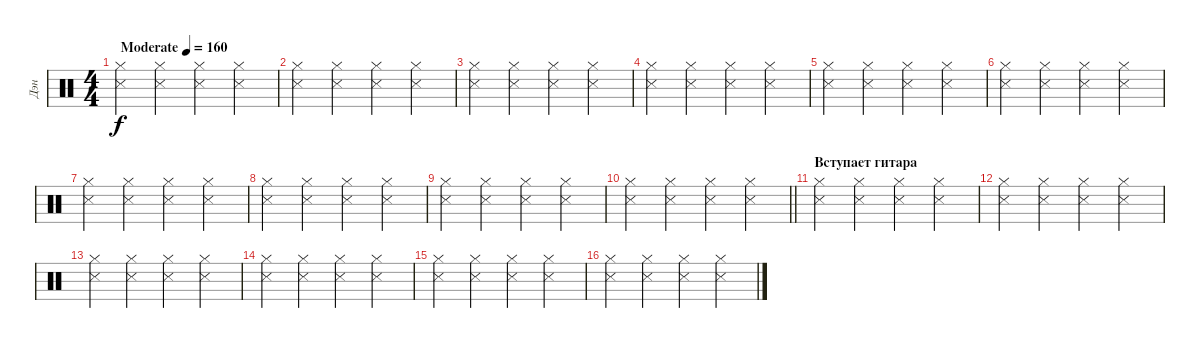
\track ("Дэн" "Дэн") {instrument percussion}
\staff {score}
\articulation defaults
\ts (4 4)
\tempo (160 "Moderate")
\clef neutral
\ks c
("Hi-Hat (closed)" "Snare (side stick) 3").4{dy f} ("Hi-Hat (closed)" "Snare (side stick) 3").4 ("Hi-Hat (closed)" "Snare (side stick) 3").4 ("Hi-Hat (closed)" "Snare (side stick) 3").4 |
("Hi-Hat (closed)" "Snare (side stick) 3").4 ("Hi-Hat (closed)" "Snare (side stick) 3").4 ("Hi-Hat (closed)" "Snare (side stick) 3").4 ("Hi-Hat (closed)" "Snare (side stick) 3").4 |
("Hi-Hat (closed)" "Snare (side stick) 3").4 ("Hi-Hat (closed)" "Snare (side stick) 3").4 ("Hi-Hat (closed)" "Snare (side stick) 3").4 ("Hi-Hat (closed)" "Snare (side stick) 3").4 |
("Hi-Hat (closed)" "Snare (side stick) 3").4 ("Hi-Hat (closed)" "Snare (side stick) 3").4 ("Hi-Hat (closed)" "Snare (side stick) 3").4 ("Hi-Hat (closed)" "Snare (side stick) 3").4 |
("Hi-Hat (closed)" "Snare (side stick) 3").4 ("Hi-Hat (closed)" "Snare (side stick) 3").4 ("Hi-Hat (closed)" "Snare (side stick) 3").4 ("Hi-Hat (closed)" "Snare (side stick) 3").4 |
("Hi-Hat (closed)" "Snare (side stick) 3").4 ("Hi-Hat (closed)" "Snare (side stick) 3").4 ("Hi-Hat (closed)" "Snare (side stick) 3").4 ("Hi-Hat (closed)" "Snare (side stick) 3").4 |
("Hi-Hat (closed)" "Snare (side stick) 3").4 ("Hi-Hat (closed)" "Snare (side stick) 3").4 ("Hi-Hat (closed)" "Snare (side stick) 3").4 ("Hi-Hat (closed)" "Snare (side stick) 3").4 |
("Hi-Hat (closed)" "Snare (side stick) 3").4 ("Hi-Hat (closed)" "Snare (side stick) 3").4 ("Hi-Hat (closed)" "Snare (side stick) 3").4 ("Hi-Hat (closed)" "Snare (side stick) 3").4 |
("Hi-Hat (closed)" "Snare (side stick) 3").4 ("Hi-Hat (closed)" "Snare (side stick) 3").4 ("Hi-Hat (closed)" "Snare (side stick) 3").4 ("Hi-Hat (closed)" "Snare (side stick) 3").4 |
\barLineRight lightlight
("Hi-Hat (closed)" "Snare (side stick) 3").4 ("Hi-Hat (closed)" "Snare (side stick) 3").4 ("Hi-Hat (closed)" "Snare (side stick) 3").4 ("Hi-Hat (closed)" "Snare (side stick) 3").4 |
\section ("" "Вступает гитара")
("Hi-Hat (closed)" "Snare (side stick) 3").4 ("Hi-Hat (closed)" "Snare (side stick) 3").4 ("Hi-Hat (closed)" "Snare (side stick) 3").4 ("Hi-Hat (closed)" "Snare (side stick) 3").4 |
("Hi-Hat (closed)" "Snare (side stick) 3").4 ("Hi-Hat (closed)" "Snare (side stick) 3").4 ("Hi-Hat (closed)" "Snare (side stick) 3").4 ("Hi-Hat (closed)" "Snare (side stick) 3").4 |
("Hi-Hat (closed)" "Snare (side stick) 3").4 ("Hi-Hat (closed)" "Snare (side stick) 3").4 ("Hi-Hat (closed)" "Snare (side stick) 3").4 ("Hi-Hat (closed)" "Snare (side stick) 3").4 |
("Hi-Hat (closed)" "Snare (side stick) 3").4 ("Hi-Hat (closed)" "Snare (side stick) 3").4 ("Hi-Hat (closed)" "Snare (side stick) 3").4 ("Hi-Hat (closed)" "Snare (side stick) 3").4 |
("Hi-Hat (closed)" "Snare (side stick) 3").4 ("Hi-Hat (closed)" "Snare (side stick) 3").4 ("Hi-Hat (closed)" "Snare (side stick) 3").4 ("Hi-Hat (closed)" "Snare (side stick) 3").4 |
("Hi-Hat (closed)" "Snare (side stick) 3").4 ("Hi-Hat (closed)" "Snare (side stick) 3").4 ("Hi-Hat (closed)" "Snare (side stick) 3").4 ("Hi-Hat (closed)" "Snare (side stick) 3").4
